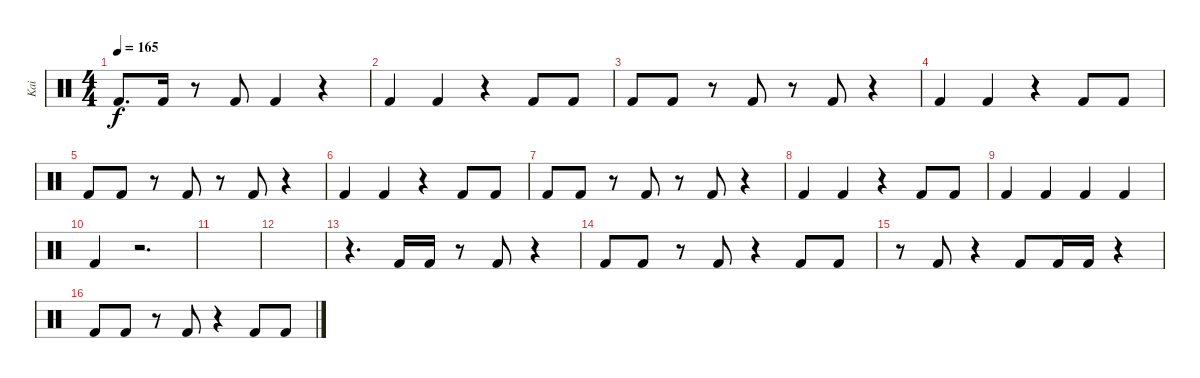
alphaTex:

\track ("Kai" "Kai") {instrument percussion}
\staff {score}
\articulation defaults
\ts (4 4)
\tempo 165
\clef neutral
\ks c "Kick (hit) 2".8{d dy f} "Kick (hit) 2".16
r.8 "Kick (hit) 2".8 "Kick (hit) 2".4 r.4 |
"Kick (hit) 2".4 "Kick (hit) 2".4 r.4 "Kick (hit) 2".8 "Kick (hit) 2".8 |
"Kick (hit) 2".8 "Kick (hit) 2".8 r.8 "Kick (hit) 2".8 r.8 "Kick (hit) 2".8 r.4 |
"Kick (hit) 2".4 "Kick (hit) 2".4 r.4 "Kick (hit) 2".8 "Kick (hit) 2".8 |
"Kick (hit) 2".8 "Kick (hit) 2".8 r.8 "Kick (hit) 2".8 r.8 "Kick (hit) 2".8 r.4 |
"Kick (hit) 2".4 "Kick (hit) 2".4 r.4 "Kick (hit) 2".8 "Kick (hit) 2".8 |
"Kick (hit) 2".8 "Kick (hit) 2".8 r.8 "Kick (hit) 2".8 r.8 "Kick (hit) 2".8 r.4 |
"Kick (hit) 2".4 "Kick (hit) 2".4 r.4 "Kick (hit) 2".8 "Kick (hit) 2".8 |
"Kick (hit) 2".4 "Kick (hit) 2".4 "Kick (hit) 2".4 "Kick (hit) 2".4 |
"Kick (hit) 2".4 r.2{d} |
|
|
r.4{d} "Kick (hit) 2".16 "Kick (hit) 2".16 r.8 "Kick (hit) 2".8 r.4 |
"Kick (hit) 2".8 "Kick (hit) 2".8 r.8 "Kick (hit) 2".8 r.4 "Kick (hit) 2".8 "Kick (hit) 2".8 |
r.8 "Kick (hit) 2".8 r.4 "Kick (hit) 2".8 "Kick (hit) 2".16 "Kick (hit) 2".16 r.4 |
"Kick (hit) 2".8 "Kick (hit) 2".8 r.8 "Kick (hit) 2".8 r.4 "Kick (hit) 2".8 "Kick (hit) 2".8
